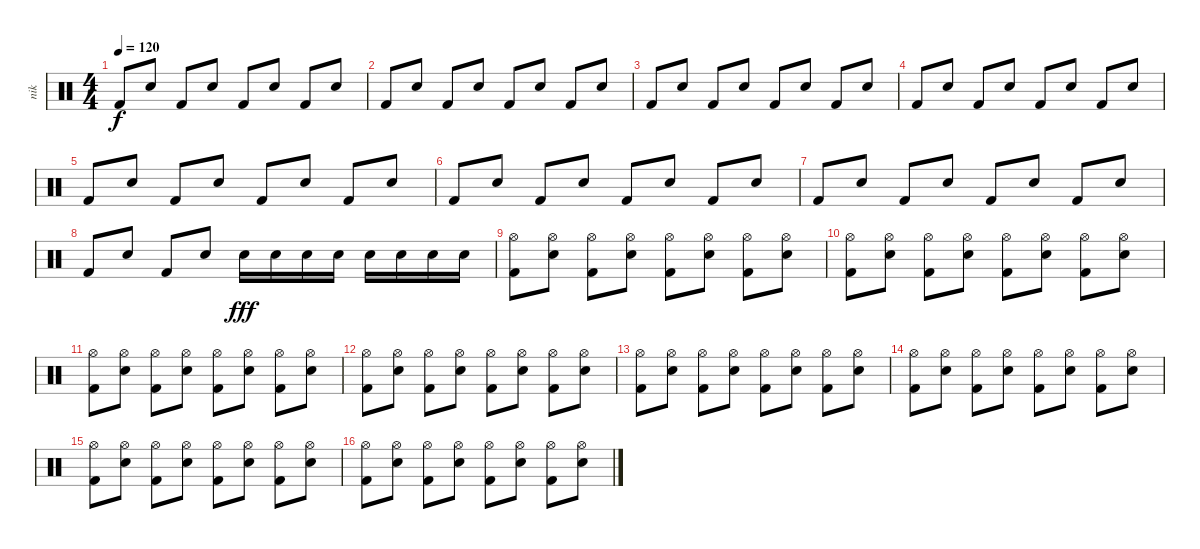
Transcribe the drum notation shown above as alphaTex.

\track ("nik" "nik") {instrument percussion}
\staff {score}
\articulation defaults
\ts (4 4)
\tempo 120
\clef neutral
\ks c "Kick (hit) 2".8{dy f} "Electric Snare (hit)".8 "Kick (hit) 2".8 "Electric Snare (hit)".8 "Kick (hit) 2".8 "Electric Snare (hit)".8 "Kick (hit) 2".8 "Electric Snare (hit)".8
|
"Kick (hit) 2".8 "Electric Snare (hit)".8 "Kick (hit) 2".8 "Electric Snare (hit)".8 "Kick (hit) 2".8 "Electric Snare (hit)".8 "Kick (hit) 2".8 "Electric Snare (hit)".8 |
"Kick (hit) 2".8 "Electric Snare (hit)".8 "Kick (hit) 2".8 "Electric Snare (hit)".8 "Kick (hit) 2".8 "Electric Snare (hit)".8 "Kick (hit) 2".8 "Electric Snare (hit)".8 |
"Kick (hit) 2".8 "Electric Snare (hit)".8 "Kick (hit) 2".8 "Electric Snare (hit)".8 "Kick (hit) 2".8 "Electric Snare (hit)".8 "Kick (hit) 2".8 "Electric Snare (hit)".8 |
"Kick (hit) 2".8 "Electric Snare (hit)".8 "Kick (hit) 2".8 "Electric Snare (hit)".8 "Kick (hit) 2".8 "Electric Snare (hit)".8 "Kick (hit) 2".8 "Electric Snare (hit)".8 |
"Kick (hit) 2".8 "Electric Snare (hit)".8 "Kick (hit) 2".8 "Electric Snare (hit)".8 "Kick (hit) 2".8 "Electric Snare (hit)".8 "Kick (hit) 2".8 "Electric Snare (hit)".8 |
"Kick (hit) 2".8 "Electric Snare (hit)".8 "Kick (hit) 2".8 "Electric Snare (hit)".8 "Kick (hit) 2".8 "Electric Snare (hit)".8 "Kick (hit) 2".8 "Electric Snare (hit)".8 |
"Kick (hit) 2".8 "Electric Snare (hit)".8 "Kick (hit) 2".8 "Electric Snare (hit)".8 "Electric Snare (hit)".16{dy fff} "Electric Snare (hit)".16 "Electric Snare (hit)".16 "Electric Snare (hit)".16 "Electric Snare (hit)".16 "Electric Snare (hit)".16 "Electric Snare (hit)".16 "Electric Snare (hit)".16 |
("Kick (hit) 2" "Hi-Hat (open)").8 ("Electric Snare (hit)" "Hi-Hat (open)").8 ("Kick (hit) 2" "Hi-Hat (open)").8 ("Electric Snare (hit)" "Hi-Hat (open)").8 ("Kick (hit) 2" "Hi-Hat (open)").8 ("Electric Snare (hit)" "Hi-Hat (open)").8 ("Kick (hit) 2" "Hi-Hat (open)").8 ("Electric Snare (hit)" "Hi-Hat (open)").8 |
("Kick (hit) 2" "Hi-Hat (open)").8 ("Electric Snare (hit)" "Hi-Hat (open)").8 ("Kick (hit) 2" "Hi-Hat (open)").8 ("Electric Snare (hit)" "Hi-Hat (open)").8 ("Kick (hit) 2" "Hi-Hat (open)").8 ("Electric Snare (hit)" "Hi-Hat (open)").8 ("Kick (hit) 2" "Hi-Hat (open)").8 ("Electric Snare (hit)" "Hi-Hat (open)").8 |
("Kick (hit) 2" "Hi-Hat (open)").8 ("Electric Snare (hit)" "Hi-Hat (open)").8 ("Kick (hit) 2" "Hi-Hat (open)").8 ("Electric Snare (hit)" "Hi-Hat (open)").8 ("Kick (hit) 2" "Hi-Hat (open)").8 ("Electric Snare (hit)" "Hi-Hat (open)").8 ("Kick (hit) 2" "Hi-Hat (open)").8 ("Electric Snare (hit)" "Hi-Hat (open)").8 |
("Kick (hit) 2" "Hi-Hat (open)").8 ("Electric Snare (hit)" "Hi-Hat (open)").8 ("Kick (hit) 2" "Hi-Hat (open)").8 ("Electric Snare (hit)" "Hi-Hat (open)").8 ("Kick (hit) 2" "Hi-Hat (open)").8 ("Electric Snare (hit)" "Hi-Hat (open)").8 ("Kick (hit) 2" "Hi-Hat (open)").8 ("Electric Snare (hit)" "Hi-Hat (open)").8 |
("Kick (hit) 2" "Hi-Hat (open)").8 ("Electric Snare (hit)" "Hi-Hat (open)").8 ("Kick (hit) 2" "Hi-Hat (open)").8 ("Electric Snare (hit)" "Hi-Hat (open)").8 ("Kick (hit) 2" "Hi-Hat (open)").8 ("Electric Snare (hit)" "Hi-Hat (open)").8 ("Kick (hit) 2" "Hi-Hat (open)").8 ("Electric Snare (hit)" "Hi-Hat (open)").8 |
("Kick (hit) 2" "Hi-Hat (open)").8 ("Electric Snare (hit)" "Hi-Hat (open)").8 ("Kick (hit) 2" "Hi-Hat (open)").8 ("Electric Snare (hit)" "Hi-Hat (open)").8 ("Kick (hit) 2" "Hi-Hat (open)").8 ("Electric Snare (hit)" "Hi-Hat (open)").8 ("Kick (hit) 2" "Hi-Hat (open)").8 ("Electric Snare (hit)" "Hi-Hat (open)").8 |
("Kick (hit) 2" "Hi-Hat (open)").8 ("Electric Snare (hit)" "Hi-Hat (open)").8 ("Kick (hit) 2" "Hi-Hat (open)").8 ("Electric Snare (hit)" "Hi-Hat (open)").8 ("Kick (hit) 2" "Hi-Hat (open)").8 ("Electric Snare (hit)" "Hi-Hat (open)").8 ("Kick (hit) 2" "Hi-Hat (open)").8 ("Electric Snare (hit)" "Hi-Hat (open)").8 |
("Kick (hit) 2" "Hi-Hat (open)").8 ("Electric Snare (hit)" "Hi-Hat (open)").8 ("Kick (hit) 2" "Hi-Hat (open)").8 ("Electric Snare (hit)" "Hi-Hat (open)").8 ("Kick (hit) 2" "Hi-Hat (open)").8 ("Electric Snare (hit)" "Hi-Hat (open)").8 ("Kick (hit) 2" "Hi-Hat (open)").8 ("Electric Snare (hit)" "Hi-Hat (open)").8
